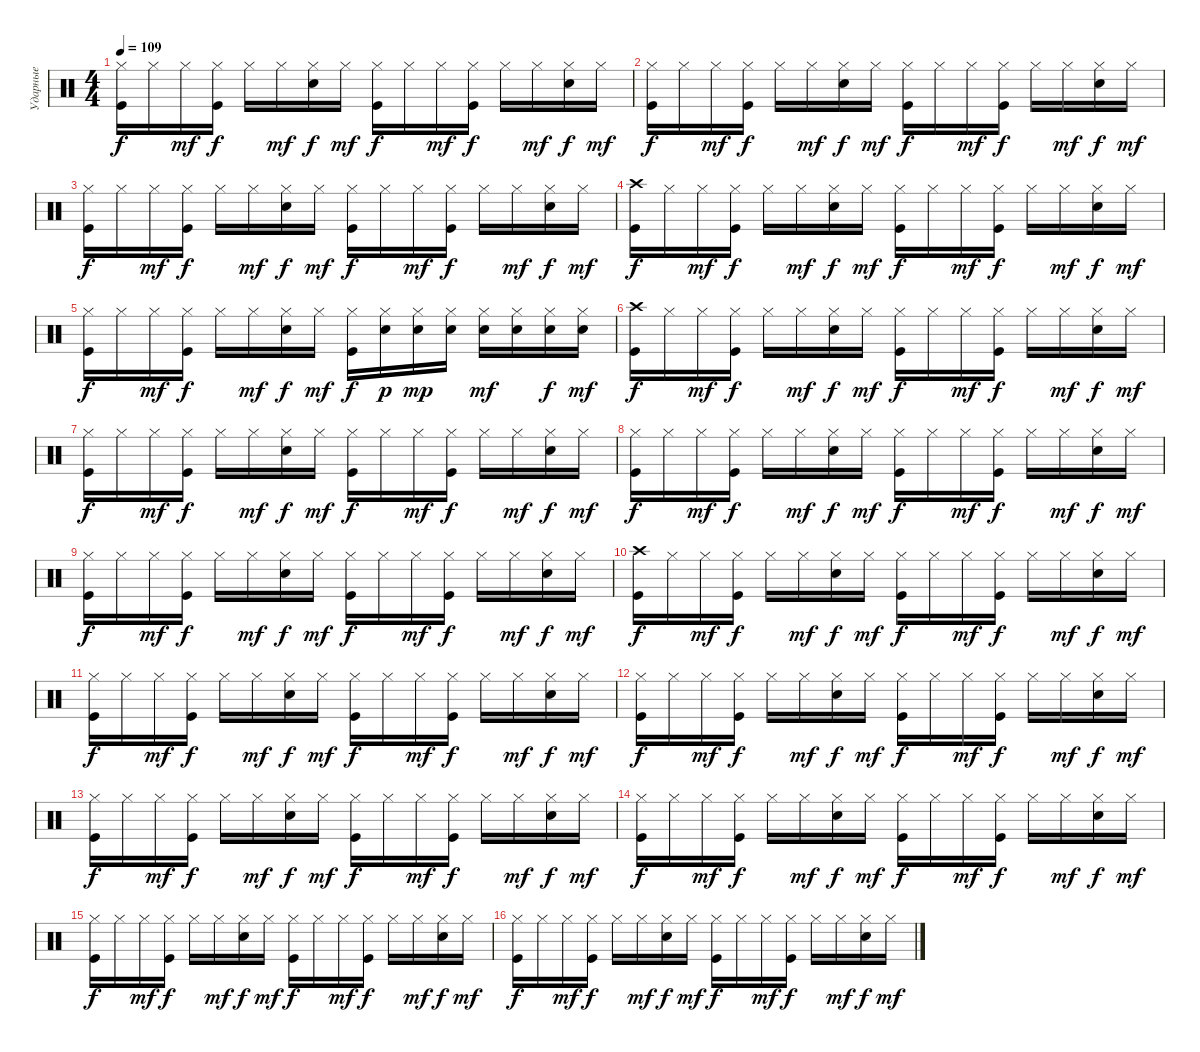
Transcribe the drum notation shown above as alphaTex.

\track ("Ударные" "Ударные") {instrument percussion}
\staff {score}
\articulation defaults
\ts (4 4)
\tempo 109
\clef neutral
\ks c
("Hi-Hat (closed)" "Kick (hit)").16{dy f} "Hi-Hat (closed)".16 "Hi-Hat (closed)".16{dy mf} ("Kick (hit)" "Hi-Hat (closed)").16{dy f} "Hi-Hat (closed)".16 "Hi-Hat (closed)".16{dy mf} ("Electric Snare (hit)" "Hi-Hat (closed)").16{dy f} "Hi-Hat (closed)".16{dy mf} ("Kick (hit)" "Hi-Hat (closed)").16{dy f} "Hi-Hat (closed)".16 "Hi-Hat (closed)".16{dy mf} ("Hi-Hat (closed)" "Kick (hit)").16{dy f} "Hi-Hat (closed)".16 "Hi-Hat (closed)".16{dy mf} ("Hi-Hat (closed)" "Electric Snare (hit)").16{dy f} "Hi-Hat (closed)".16{dy mf} |
("Hi-Hat (closed)" "Kick (hit)").16{dy f} "Hi-Hat (closed)".16 "Hi-Hat (closed)".16{dy mf} ("Kick (hit)" "Hi-Hat (closed)").16{dy f} "Hi-Hat (closed)".16 "Hi-Hat (closed)".16{dy mf} ("Electric Snare (hit)" "Hi-Hat (closed)").16{dy f} "Hi-Hat (closed)".16{dy mf} ("Hi-Hat (closed)" "Kick (hit)").16{dy f} "Hi-Hat (closed)".16 "Hi-Hat (closed)".16{dy mf} ("Hi-Hat (closed)" "Kick (hit)").16{dy f} "Hi-Hat (closed)".16 "Hi-Hat (closed)".16{dy mf} ("Electric Snare (hit)" "Hi-Hat (closed)").16{dy f} "Hi-Hat (closed)".16{dy mf} |
("Hi-Hat (closed)" "Kick (hit)").16{dy f} "Hi-Hat (closed)".16 "Hi-Hat (closed)".16{dy mf} ("Kick (hit)" "Hi-Hat (closed)").16{dy f} "Hi-Hat (closed)".16 "Hi-Hat (closed)".16{dy mf} ("Electric Snare (hit)" "Hi-Hat (closed)").16{dy f} "Hi-Hat (closed)".16{dy mf} ("Kick (hit)" "Hi-Hat (closed)").16{dy f} "Hi-Hat (closed)".16 "Hi-Hat (closed)".16{dy mf} ("Hi-Hat (closed)" "Kick (hit)").16{dy f} "Hi-Hat (closed)".16 "Hi-Hat (closed)".16{dy mf} ("Electric Snare (hit)" "Hi-Hat (closed)").16{dy f} "Hi-Hat (closed)".16{dy mf} |
("Kick (hit)" "Crash high (hit)").16{dy f} "Hi-Hat (closed)".16 "Hi-Hat (closed)".16{dy mf} ("Kick (hit)" "Hi-Hat (closed)").16{dy f} "Hi-Hat (closed)".16 "Hi-Hat (closed)".16{dy mf} ("Electric Snare (hit)" "Hi-Hat (closed)").16{dy f} "Hi-Hat (closed)".16{dy mf} ("Kick (hit)" "Hi-Hat (closed)").16{dy f} "Hi-Hat (closed)".16 "Hi-Hat (closed)".16{dy mf} ("Hi-Hat (closed)" "Kick (hit)").16{dy f} "Hi-Hat (closed)".16 "Hi-Hat (closed)".16{dy mf} ("Hi-Hat (closed)" "Electric Snare (hit)").16{dy f} "Hi-Hat (closed)".16{dy mf} |
("Kick (hit)" "Hi-Hat (closed)").16{dy f} "Hi-Hat (closed)".16 "Hi-Hat (closed)".16{dy mf} ("Hi-Hat (closed)" "Kick (hit)").16{dy f} "Hi-Hat (closed)".16 "Hi-Hat (closed)".16{dy mf} ("Electric Snare (hit)" "Hi-Hat (closed)").16{dy f} "Hi-Hat (closed)".16{dy mf} ("Kick (hit)" "Hi-Hat (closed)").16{dy f} ("Electric Snare (hit)" "Hi-Hat (closed)").16{dy p} ("Hi-Hat (closed)" "Electric Snare (hit)").16{dy mp} ("Electric Snare (hit)" "Hi-Hat (closed)").16 ("Hi-Hat (closed)" "Electric Snare (hit)").16{dy mf} ("Hi-Hat (closed)" "Electric Snare (hit)").16 ("Electric Snare (hit)" "Hi-Hat (closed)").16{dy f} ("Electric Snare (hit)" "Hi-Hat (closed)").16{dy mf} |
("Kick (hit)" "Crash high (hit)").16{dy f} "Hi-Hat (closed)".16 "Hi-Hat (closed)".16{dy mf} ("Kick (hit)" "Hi-Hat (closed)").16{dy f} "Hi-Hat (closed)".16 "Hi-Hat (closed)".16{dy mf} ("Hi-Hat (closed)" "Electric Snare (hit)").16{dy f} "Hi-Hat (closed)".16{dy mf} ("Kick (hit)" "Hi-Hat (closed)").16{dy f} "Hi-Hat (closed)".16 "Hi-Hat (closed)".16{dy mf} ("Kick (hit)" "Hi-Hat (closed)").16{dy f} "Hi-Hat (closed)".16 "Hi-Hat (closed)".16{dy mf} ("Electric Snare (hit)" "Hi-Hat (closed)").16{dy f} "Hi-Hat (closed)".16{dy mf} |
("Hi-Hat (closed)" "Kick (hit)").16{dy f} "Hi-Hat (closed)".16 "Hi-Hat (closed)".16{dy mf} ("Hi-Hat (closed)" "Kick (hit)").16{dy f} "Hi-Hat (closed)".16 "Hi-Hat (closed)".16{dy mf} ("Electric Snare (hit)" "Hi-Hat (closed)").16{dy f} "Hi-Hat (closed)".16{dy mf} ("Hi-Hat (closed)" "Kick (hit)").16{dy f} "Hi-Hat (closed)".16 "Hi-Hat (closed)".16{dy mf} ("Kick (hit)" "Hi-Hat (closed)").16{dy f} "Hi-Hat (closed)".16 "Hi-Hat (closed)".16{dy mf} ("Electric Snare (hit)" "Hi-Hat (closed)").16{dy f} "Hi-Hat (closed)".16{dy mf} |
("Hi-Hat (closed)" "Kick (hit)").16{dy f} "Hi-Hat (closed)".16 "Hi-Hat (closed)".16{dy mf} ("Kick (hit)" "Hi-Hat (closed)").16{dy f} "Hi-Hat (closed)".16 "Hi-Hat (closed)".16{dy mf} ("Electric Snare (hit)" "Hi-Hat (closed)").16{dy f} "Hi-Hat (closed)".16{dy mf} ("Kick (hit)" "Hi-Hat (closed)").16{dy f} "Hi-Hat (closed)".16 "Hi-Hat (closed)".16{dy mf} ("Hi-Hat (closed)" "Kick (hit)").16{dy f} "Hi-Hat (closed)".16 "Hi-Hat (closed)".16{dy mf} ("Electric Snare (hit)" "Hi-Hat (closed)").16{dy f} "Hi-Hat (closed)".16{dy mf} |
("Hi-Hat (closed)" "Kick (hit)").16{dy f} "Hi-Hat (closed)".16 "Hi-Hat (closed)".16{dy mf} ("Hi-Hat (closed)" "Kick (hit)").16{dy f} "Hi-Hat (closed)".16 "Hi-Hat (closed)".16{dy mf} ("Electric Snare (hit)" "Hi-Hat (closed)").16{dy f} "Hi-Hat (closed)".16{dy mf} ("Hi-Hat (closed)" "Kick (hit)").16{dy f} "Hi-Hat (closed)".16 "Hi-Hat (closed)".16{dy mf} ("Hi-Hat (closed)" "Kick (hit)").16{dy f} "Hi-Hat (closed)".16 "Hi-Hat (closed)".16{dy mf} ("Electric Snare (hit)" "Hi-Hat (closed)").16{dy f} "Hi-Hat (closed)".16{dy mf} |
("Kick (hit)" "Crash high (hit)").16{dy f} "Hi-Hat (closed)".16 "Hi-Hat (closed)".16{dy mf} ("Kick (hit)" "Hi-Hat (closed)").16{dy f} "Hi-Hat (closed)".16 "Hi-Hat (closed)".16{dy mf} ("Electric Snare (hit)" "Hi-Hat (closed)").16{dy f} "Hi-Hat (closed)".16{dy mf} ("Hi-Hat (closed)" "Kick (hit)").16{dy f} "Hi-Hat (closed)".16 "Hi-Hat (closed)".16{dy mf} ("Kick (hit)" "Hi-Hat (closed)").16{dy f} "Hi-Hat (closed)".16 "Hi-Hat (closed)".16{dy mf} ("Hi-Hat (closed)" "Electric Snare (hit)").16{dy f} "Hi-Hat (closed)".16{dy mf} |
("Kick (hit)" "Hi-Hat (closed)").16{dy f} "Hi-Hat (closed)".16 "Hi-Hat (closed)".16{dy mf} ("Hi-Hat (closed)" "Kick (hit)").16{dy f} "Hi-Hat (closed)".16 "Hi-Hat (closed)".16{dy mf} ("Hi-Hat (closed)" "Electric Snare (hit)").16{dy f} "Hi-Hat (closed)".16{dy mf} ("Kick (hit)" "Hi-Hat (closed)").16{dy f} "Hi-Hat (closed)".16 "Hi-Hat (closed)".16{dy mf} ("Kick (hit)" "Hi-Hat (closed)").16{dy f} "Hi-Hat (closed)".16 "Hi-Hat (closed)".16{dy mf} ("Electric Snare (hit)" "Hi-Hat (closed)").16{dy f} "Hi-Hat (closed)".16{dy mf} |
("Hi-Hat (closed)" "Kick (hit)").16{dy f} "Hi-Hat (closed)".16 "Hi-Hat (closed)".16{dy mf} ("Kick (hit)" "Hi-Hat (closed)").16{dy f} "Hi-Hat (closed)".16 "Hi-Hat (closed)".16{dy mf} ("Hi-Hat (closed)" "Electric Snare (hit)").16{dy f} "Hi-Hat (closed)".16{dy mf} ("Hi-Hat (closed)" "Kick (hit)").16{dy f} "Hi-Hat (closed)".16 "Hi-Hat (closed)".16{dy mf} ("Hi-Hat (closed)" "Kick (hit)").16{dy f} "Hi-Hat (closed)".16 "Hi-Hat (closed)".16{dy mf} ("Hi-Hat (closed)" "Electric Snare (hit)").16{dy f} "Hi-Hat (closed)".16{dy mf} |
("Kick (hit)" "Hi-Hat (closed)").16{dy f} "Hi-Hat (closed)".16 "Hi-Hat (closed)".16{dy mf} ("Kick (hit)" "Hi-Hat (closed)").16{dy f} "Hi-Hat (closed)".16 "Hi-Hat (closed)".16{dy mf} ("Hi-Hat (closed)" "Electric Snare (hit)").16{dy f} "Hi-Hat (closed)".16{dy mf} ("Kick (hit)" "Hi-Hat (closed)").16{dy f} "Hi-Hat (closed)".16 "Hi-Hat (closed)".16{dy mf} ("Kick (hit)" "Hi-Hat (closed)").16{dy f} "Hi-Hat (closed)".16 "Hi-Hat (closed)".16{dy mf} ("Hi-Hat (closed)" "Electric Snare (hit)").16{dy f} "Hi-Hat (closed)".16{dy mf} |
("Kick (hit)" "Hi-Hat (closed)").16{dy f} "Hi-Hat (closed)".16 "Hi-Hat (closed)".16{dy mf} ("Hi-Hat (closed)" "Kick (hit)").16{dy f} "Hi-Hat (closed)".16 "Hi-Hat (closed)".16{dy mf} ("Electric Snare (hit)" "Hi-Hat (closed)").16{dy f} "Hi-Hat (closed)".16{dy mf} ("Kick (hit)" "Hi-Hat (closed)").16{dy f} "Hi-Hat (closed)".16 "Hi-Hat (closed)".16{dy mf} ("Kick (hit)" "Hi-Hat (closed)").16{dy f} "Hi-Hat (closed)".16 "Hi-Hat (closed)".16{dy mf} ("Hi-Hat (closed)" "Electric Snare (hit)").16{dy f} "Hi-Hat (closed)".16{dy mf} |
("Kick (hit)" "Hi-Hat (closed)").16{dy f} "Hi-Hat (closed)".16 "Hi-Hat (closed)".16{dy mf} ("Hi-Hat (closed)" "Kick (hit)").16{dy f} "Hi-Hat (closed)".16 "Hi-Hat (closed)".16{dy mf} ("Electric Snare (hit)" "Hi-Hat (closed)").16{dy f} "Hi-Hat (closed)".16{dy mf} ("Kick (hit)" "Hi-Hat (closed)").16{dy f} "Hi-Hat (closed)".16 "Hi-Hat (closed)".16{dy mf} ("Kick (hit)" "Hi-Hat (closed)").16{dy f} "Hi-Hat (closed)".16 "Hi-Hat (closed)".16{dy mf} ("Hi-Hat (closed)" "Electric Snare (hit)").16{dy f} "Hi-Hat (closed)".16{dy mf} |
("Hi-Hat (closed)" "Kick (hit)").16{dy f} "Hi-Hat (closed)".16 "Hi-Hat (closed)".16{dy mf} ("Hi-Hat (closed)" "Kick (hit)").16{dy f} "Hi-Hat (closed)".16 "Hi-Hat (closed)".16{dy mf} ("Hi-Hat (closed)" "Electric Snare (hit)").16{dy f} "Hi-Hat (closed)".16{dy mf} ("Hi-Hat (closed)" "Kick (hit)").16{dy f} "Hi-Hat (closed)".16 "Hi-Hat (closed)".16{dy mf} ("Hi-Hat (closed)" "Kick (hit)").16{dy f} "Hi-Hat (closed)".16 "Hi-Hat (closed)".16{dy mf} ("Hi-Hat (closed)" "Electric Snare (hit)").16{dy f} "Hi-Hat (closed)".16{dy mf}
